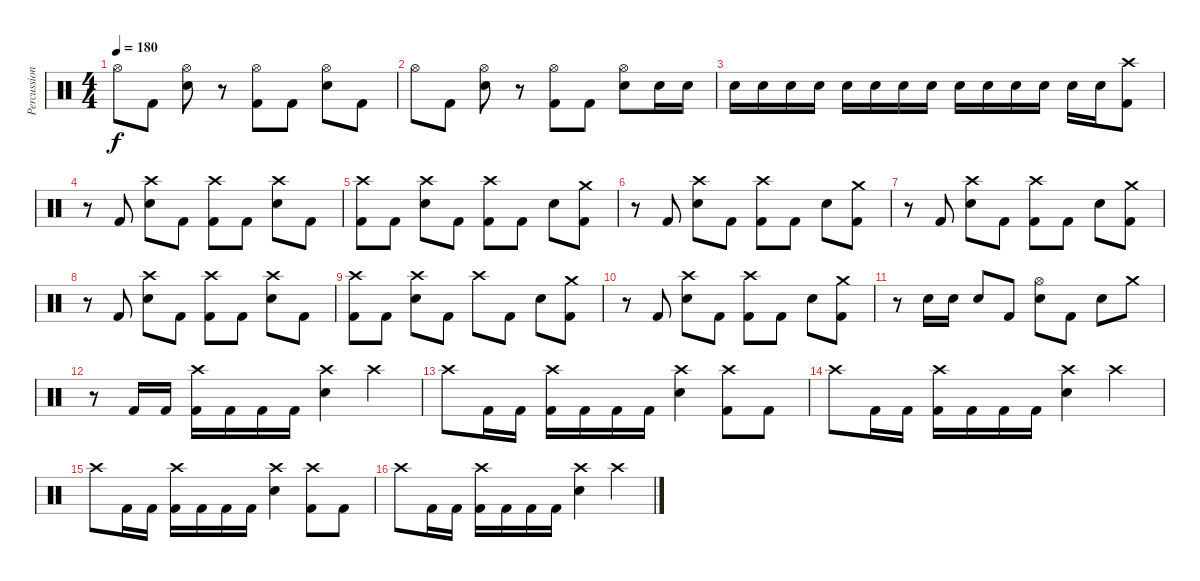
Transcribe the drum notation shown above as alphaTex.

\track ("Percussion" "Percussion") {instrument percussion}
\staff {score}
\articulation defaults
\ts (4 4)
\tempo 180
\clef neutral
\ks c "Hi-Hat (open)".8{dy f} "Kick (hit) 2".8
("Hi-Hat (open)" "Electric Snare (hit)").8 r.8 ("Hi-Hat (open)" "Kick (hit) 2").8 "Kick (hit) 2".8 ("Hi-Hat (open)" "Electric Snare (hit)").8 "Kick (hit) 2".8 |
"Hi-Hat (open)".8 "Kick (hit) 2".8 ("Hi-Hat (open)" "Electric Snare (hit)").8 r.8 ("Hi-Hat (open)" "Kick (hit) 2").8 "Kick (hit) 2".8 ("Hi-Hat (open)" "Electric Snare (hit)").8 "Electric Snare (hit)".16 "Electric Snare (hit)".16 |
"Electric Snare (hit)".16 "Electric Snare (hit)".16 "Electric Snare (hit)".16 "Electric Snare (hit)".16 "Electric Snare (hit)".16 "Electric Snare (hit)".16 "Electric Snare (hit)".16 "Electric Snare (hit)".16 "Electric Snare (hit)".16 "Electric Snare (hit)".16 "Electric Snare (hit)".16 "Electric Snare (hit)".16 "Electric Snare (hit)".16 "Electric Snare (hit)".16 ("Crash high (hit)" "Kick (hit) 2").8 |
r.8 "Kick (hit) 2".8 ("Crash high (hit)" "Electric Snare (hit)").8 "Kick (hit) 2".8 ("Crash high (hit)" "Kick (hit) 2").8 "Kick (hit) 2".8 ("Crash high (hit)" "Electric Snare (hit)").8 "Kick (hit) 2".8 |
("Crash high (hit)" "Kick (hit) 2").8 "Kick (hit) 2".8 ("Crash high (hit)" "Electric Snare (hit)").8 "Kick (hit) 2".8 ("Crash high (hit)" "Kick (hit) 2").8 "Kick (hit) 2".8 "Electric Snare (hit)".8 ("Crash medium (hit)" "Kick (hit) 2").8 |
r.8 "Kick (hit) 2".8 ("Crash high (hit)" "Electric Snare (hit)").8 "Kick (hit) 2".8 ("Crash high (hit)" "Kick (hit) 2").8 "Kick (hit) 2".8 "Electric Snare (hit)".8 ("Crash medium (hit)" "Kick (hit) 2").8 |
r.8 "Kick (hit) 2".8 ("Crash high (hit)" "Electric Snare (hit)").8 "Kick (hit) 2".8 ("Crash high (hit)" "Kick (hit) 2").8 "Kick (hit) 2".8 "Electric Snare (hit)".8 ("Crash medium (hit)" "Kick (hit) 2").8 |
r.8 "Kick (hit) 2".8 ("Crash high (hit)" "Electric Snare (hit)").8 "Kick (hit) 2".8 ("Crash high (hit)" "Kick (hit) 2").8 "Kick (hit) 2".8 ("Crash high (hit)" "Electric Snare (hit)").8 "Kick (hit) 2".8 |
("Crash high (hit)" "Kick (hit) 2").8 "Kick (hit) 2".8 ("Crash high (hit)" "Electric Snare (hit)").8 "Kick (hit) 2".8 "Crash high (hit)".8 "Kick (hit) 2".8 "Electric Snare (hit)".8 ("Crash medium (hit)" "Kick (hit) 2").8 |
r.8 "Kick (hit) 2".8 ("Crash high (hit)" "Electric Snare (hit)").8 "Kick (hit) 2".8 ("Crash high (hit)" "Kick (hit) 2").8 "Kick (hit) 2".8 "Electric Snare (hit)".8 ("Crash medium (hit)" "Kick (hit) 2").8 |
r.8 "Electric Snare (hit)".16 "Electric Snare (hit)".16 "Electric Snare (hit)".8 "Kick (hit) 2".8 ("Hi-Hat (open)" "Electric Snare (hit)").8 "Kick (hit) 2".8 "Electric Snare (hit)".8 "Crash medium (hit)".8 |
r.8 "Kick (hit) 2".16 "Kick (hit) 2".16 ("Crash high (hit)" "Kick (hit) 2").16 "Kick (hit) 2".16 "Kick (hit) 2".16 "Kick (hit) 2".16 ("Crash high (hit)" "Electric Snare (hit)").4 "Crash high (hit)".4 |
"Crash high (hit)".8 "Kick (hit) 2".16 "Kick (hit) 2".16 ("Crash high (hit)" "Kick (hit) 2").16 "Kick (hit) 2".16 "Kick (hit) 2".16 "Kick (hit) 2".16 ("Crash high (hit)" "Electric Snare (hit)").4 ("Kick (hit) 2" "Crash high (hit)").8 "Kick (hit) 2".8 |
"Crash high (hit)".8 "Kick (hit) 2".16 "Kick (hit) 2".16 ("Crash high (hit)" "Kick (hit) 2").16 "Kick (hit) 2".16 "Kick (hit) 2".16 "Kick (hit) 2".16 ("Crash high (hit)" "Electric Snare (hit)").4 "Crash high (hit)".4 |
"Crash high (hit)".8 "Kick (hit) 2".16 "Kick (hit) 2".16 ("Crash high (hit)" "Kick (hit) 2").16 "Kick (hit) 2".16 "Kick (hit) 2".16 "Kick (hit) 2".16 ("Crash high (hit)" "Electric Snare (hit)").4 ("Kick (hit) 2" "Crash high (hit)").8 "Kick (hit) 2".8 |
"Crash high (hit)".8 "Kick (hit) 2".16 "Kick (hit) 2".16 ("Crash high (hit)" "Kick (hit) 2").16 "Kick (hit) 2".16 "Kick (hit) 2".16 "Kick (hit) 2".16 ("Crash high (hit)" "Electric Snare (hit)").4 "Crash high (hit)".4
